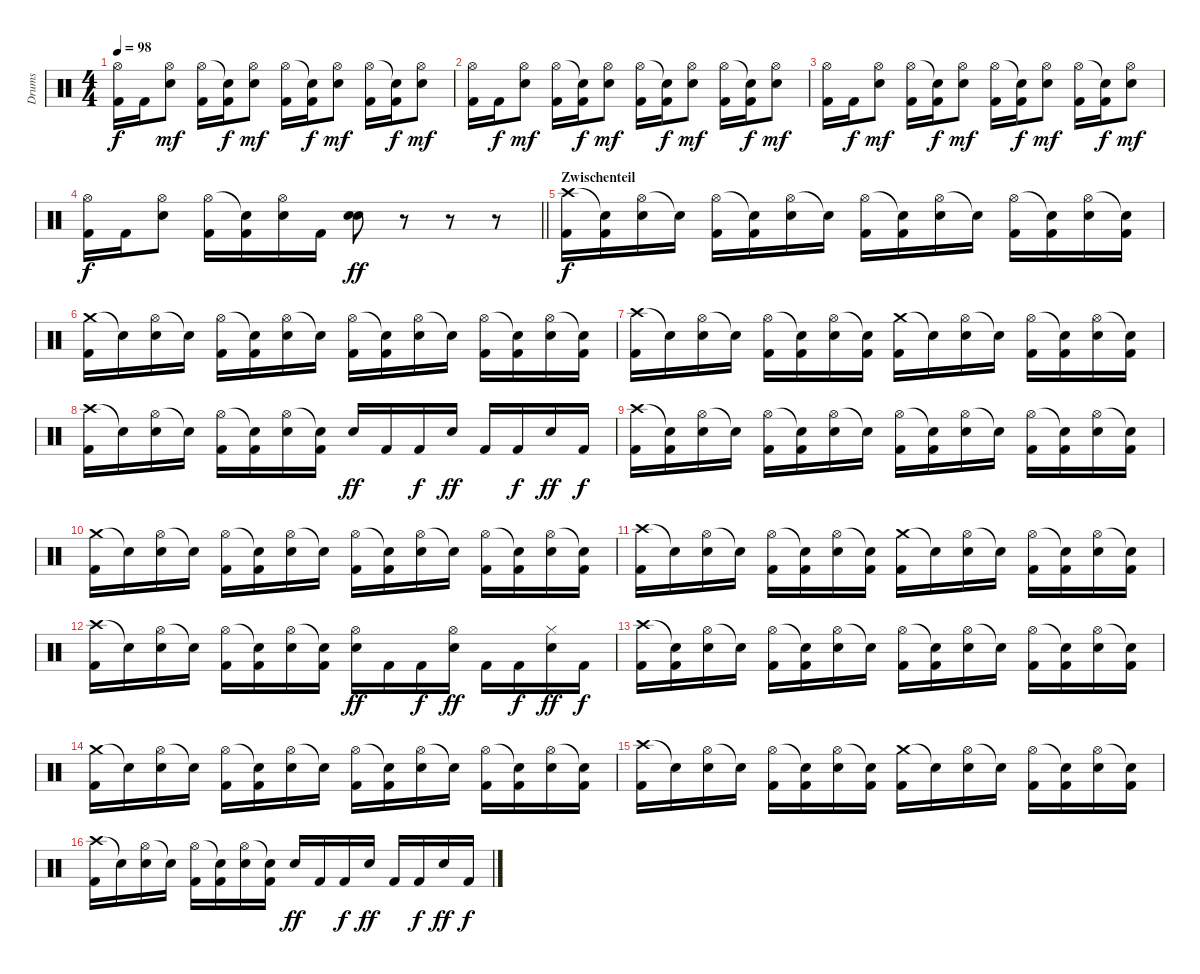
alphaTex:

\track ("Drums" "Drums") {instrument percussion}
\staff {score}
\articulation defaults
\ts (4 4)
\tempo 98
\clef neutral
\ks c
("Hi-Hat (open)" "Kick (hit) 2").16{dy f} "Kick (hit) 2".16 ("Hi-Hat (open)" "Snare (hit) 2").8{dy mf} ("Hi-Hat (open)" "Kick (hit) 2").16 ("Snare (hit)"{t} "Kick (hit) 2").16{dy f} ("Hi-Hat (open)" "Snare (hit) 2").8{dy mf} ("Hi-Hat (open)" "Kick (hit) 2").16 ("Snare (hit)"{t} "Kick (hit) 2").16{dy f} ("Hi-Hat (open)" "Snare (hit) 2").8{dy mf} ("Hi-Hat (open)" "Kick (hit) 2").16 ("Snare (hit)"{t} "Kick (hit) 2").16{dy f} ("Hi-Hat (open)" "Snare (hit) 2").8{dy mf} |
("Hi-Hat (open)" "Kick (hit) 2").16 "Kick (hit) 2".16{dy f} ("Hi-Hat (open)" "Snare (hit) 2").8{dy mf} ("Hi-Hat (open)" "Kick (hit) 2").16 ("Snare (hit)"{t} "Kick (hit) 2").16{dy f} ("Hi-Hat (open)" "Snare (hit) 2").8{dy mf} ("Hi-Hat (open)" "Kick (hit) 2").16 ("Snare (hit)"{t} "Kick (hit) 2").16{dy f} ("Hi-Hat (open)" "Snare (hit) 2").8{dy mf} ("Hi-Hat (open)" "Kick (hit) 2").16 ("Snare (hit)"{t} "Kick (hit) 2").16{dy f} ("Hi-Hat (open)" "Snare (hit) 2").8{dy mf} |
("Hi-Hat (open)" "Kick (hit) 2").16 "Kick (hit) 2".16{dy f} ("Hi-Hat (open)" "Snare (hit) 2").8{dy mf} ("Hi-Hat (open)" "Kick (hit) 2").16 ("Snare (hit)"{t} "Kick (hit) 2").16{dy f} ("Hi-Hat (open)" "Snare (hit) 2").8{dy mf} ("Hi-Hat (open)" "Kick (hit) 2").16 ("Snare (hit)"{t} "Kick (hit) 2").16{dy f} ("Hi-Hat (open)" "Snare (hit) 2").8{dy mf} ("Hi-Hat (open)" "Kick (hit) 2").16 ("Snare (hit)"{t} "Kick (hit) 2").16{dy f} ("Hi-Hat (open)" "Snare (hit) 2").8{dy mf} |
\barLineRight lightlight
("Hi-Hat (open)" "Kick (hit) 2").16{dy f} "Kick (hit) 2".16 ("Hi-Hat (open)" "Snare (hit) 2").8 ("Hi-Hat (open)" "Kick (hit) 2").16 ("Snare (hit)"{t} "Kick (hit) 2").16 ("Hi-Hat (open)" "Snare (hit) 2").16 "Kick (hit) 2".16 ("Electric Snare (hit)" "Snare (hit) 2").8{dy ff} r.8 r.8 r.8 |
\section ("" "Zwischenteil")
("Crash high (hit)" "Kick (hit) 2").16{dy f} ("Snare (hit)"{t} "Kick (hit) 2").16 ("Hi-Hat (open)" "Snare (hit) 2").16 "Snare (hit)"{t}.16 ("Hi-Hat (open)" "Kick (hit) 2").16 ("Snare (hit)"{t} "Kick (hit) 2").16 ("Hi-Hat (open)" "Snare (hit) 2").16 "Snare (hit)"{t}.16 ("Hi-Hat (open)" "Kick (hit) 2").16 ("Snare (hit)"{t} "Kick (hit) 2").16 ("Hi-Hat (open)" "Snare (hit) 2").16 "Snare (hit)"{t}.16 ("Hi-Hat (open)" "Kick (hit) 2").16 ("Snare (hit)"{t} "Kick (hit) 2").16 ("Hi-Hat (open)" "Snare (hit) 2").16 ("Snare (hit)"{t} "Kick (hit) 2").16 |
("Crash medium (hit)" "Kick (hit) 2").16 "Snare (hit)"{t}.16 ("Hi-Hat (open)" "Snare (hit) 2").16 "Snare (hit)"{t}.16 ("Hi-Hat (open)" "Kick (hit) 2").16 ("Snare (hit)"{t} "Kick (hit) 2").16 ("Hi-Hat (open)" "Snare (hit) 2").16 "Snare (hit)"{t}.16 ("Hi-Hat (open)" "Kick (hit) 2").16 ("Snare (hit)"{t} "Kick (hit) 2").16 ("Hi-Hat (open)" "Snare (hit) 2").16 "Snare (hit)"{t}.16 ("Hi-Hat (open)" "Kick (hit) 2").16 ("Snare (hit)"{t} "Kick (hit) 2").16 ("Hi-Hat (open)" "Snare (hit) 2").16 ("Snare (hit)"{t} "Kick (hit) 2").16 |
("Crash high (hit)" "Kick (hit) 2").16 "Snare (hit)"{t}.16 ("Hi-Hat (open)" "Snare (hit) 2").16 "Snare (hit)"{t}.16 ("Hi-Hat (open)" "Kick (hit) 2").16 ("Snare (hit)"{t} "Kick (hit) 2").16 ("Hi-Hat (open)" "Snare (hit) 2").16 ("Snare (hit)"{t} "Kick (hit) 2").16 ("Crash medium (hit)" "Kick (hit) 2").16 "Snare (hit)"{t}.16 ("Hi-Hat (open)" "Snare (hit) 2").16 "Snare (hit)"{t}.16 ("Hi-Hat (open)" "Kick (hit) 2").16 ("Snare (hit)"{t} "Kick (hit) 2").16 ("Hi-Hat (open)" "Snare (hit) 2").16 ("Snare (hit)"{t} "Kick (hit) 2").16 |
("Crash high (hit)" "Kick (hit) 2").16 "Snare (hit)"{t}.16 ("Hi-Hat (open)" "Snare (hit) 2").16 "Snare (hit)"{t}.16 ("Hi-Hat (open)" "Kick (hit) 2").16 ("Snare (hit)"{t} "Kick (hit) 2").16 ("Hi-Hat (open)" "Snare (hit) 2").16 ("Snare (hit)"{t} "Kick (hit) 2").16 "Snare (hit) 2".16{dy ff} "Kick (hit) 2".16 "Kick (hit) 2".16{dy f} "Snare (hit) 2".16{dy ff} "Kick (hit) 2".16 "Kick (hit) 2".16{dy f} "Snare (hit) 2".16{dy ff} "Kick (hit) 2".16{dy f} |
("Crash high (hit)" "Kick (hit) 2").16 ("Snare (hit)"{t} "Kick (hit) 2").16 ("Hi-Hat (open)" "Snare (hit) 2").16 "Snare (hit)"{t}.16 ("Hi-Hat (open)" "Kick (hit) 2").16 ("Snare (hit)"{t} "Kick (hit) 2").16 ("Hi-Hat (open)" "Snare (hit) 2").16 "Snare (hit)"{t}.16 ("Hi-Hat (open)" "Kick (hit) 2").16 ("Snare (hit)"{t} "Kick (hit) 2").16 ("Hi-Hat (open)" "Snare (hit) 2").16 "Snare (hit)"{t}.16 ("Hi-Hat (open)" "Kick (hit) 2").16 ("Snare (hit)"{t} "Kick (hit) 2").16 ("Hi-Hat (open)" "Snare (hit) 2").16 ("Snare (hit)"{t} "Kick (hit) 2").16 |
("Crash medium (hit)" "Kick (hit) 2").16 "Snare (hit)"{t}.16 ("Hi-Hat (open)" "Snare (hit) 2").16 "Snare (hit)"{t}.16 ("Hi-Hat (open)" "Kick (hit) 2").16 ("Snare (hit)"{t} "Kick (hit) 2").16 ("Hi-Hat (open)" "Snare (hit) 2").16 "Snare (hit)"{t}.16 ("Hi-Hat (open)" "Kick (hit) 2").16 ("Snare (hit)"{t} "Kick (hit) 2").16 ("Hi-Hat (open)" "Snare (hit) 2").16 "Snare (hit)"{t}.16 ("Hi-Hat (open)" "Kick (hit) 2").16 ("Snare (hit)"{t} "Kick (hit) 2").16 ("Hi-Hat (open)" "Snare (hit) 2").16 ("Snare (hit)"{t} "Kick (hit) 2").16 |
("Crash high (hit)" "Kick (hit) 2").16 "Snare (hit)"{t}.16 ("Hi-Hat (open)" "Snare (hit) 2").16 "Snare (hit)"{t}.16 ("Hi-Hat (open)" "Kick (hit) 2").16 ("Snare (hit)"{t} "Kick (hit) 2").16 ("Hi-Hat (open)" "Snare (hit) 2").16 ("Snare (hit)"{t} "Kick (hit) 2").16 ("Crash medium (hit)" "Kick (hit) 2").16 "Snare (hit)"{t}.16 ("Hi-Hat (open)" "Snare (hit) 2").16 "Snare (hit)"{t}.16 ("Hi-Hat (open)" "Kick (hit) 2").16 ("Snare (hit)"{t} "Kick (hit) 2").16 ("Hi-Hat (open)" "Snare (hit) 2").16 ("Snare (hit)"{t} "Kick (hit) 2").16 |
("Crash high (hit)" "Kick (hit) 2").16 "Snare (hit)"{t}.16 ("Hi-Hat (open)" "Snare (hit) 2").16 "Snare (hit)"{t}.16 ("Hi-Hat (open)" "Kick (hit) 2").16 ("Snare (hit)"{t} "Kick (hit) 2").16 ("Hi-Hat (open)" "Snare (hit) 2").16 ("Snare (hit)"{t} "Kick (hit) 2").16 ("Hi-Hat (open)" "Snare (hit) 2").16{dy ff} "Kick (hit) 2".16 "Kick (hit) 2".16{dy f} ("Hi-Hat (open)" "Snare (hit) 2").16{dy ff} "Kick (hit) 2".16 "Kick (hit) 2".16{dy f} ("Hi-Hat (closed)" "Snare (hit) 2").16{dy ff} "Kick (hit) 2".16{dy f} |
("Crash high (hit)" "Kick (hit) 2").16 ("Snare (hit)"{t} "Kick (hit) 2").16 ("Hi-Hat (open)" "Snare (hit) 2").16 "Snare (hit)"{t}.16 ("Hi-Hat (open)" "Kick (hit) 2").16 ("Snare (hit)"{t} "Kick (hit) 2").16 ("Hi-Hat (open)" "Snare (hit) 2").16 "Snare (hit)"{t}.16 ("Hi-Hat (open)" "Kick (hit) 2").16 ("Snare (hit)"{t} "Kick (hit) 2").16 ("Hi-Hat (open)" "Snare (hit) 2").16 "Snare (hit)"{t}.16 ("Hi-Hat (open)" "Kick (hit) 2").16 ("Snare (hit)"{t} "Kick (hit) 2").16 ("Hi-Hat (open)" "Snare (hit) 2").16 ("Snare (hit)"{t} "Kick (hit) 2").16 |
("Crash medium (hit)" "Kick (hit) 2").16 "Snare (hit)"{t}.16 ("Hi-Hat (open)" "Snare (hit) 2").16 "Snare (hit)"{t}.16 ("Hi-Hat (open)" "Kick (hit) 2").16 ("Snare (hit)"{t} "Kick (hit) 2").16 ("Hi-Hat (open)" "Snare (hit) 2").16 "Snare (hit)"{t}.16 ("Hi-Hat (open)" "Kick (hit) 2").16 ("Snare (hit)"{t} "Kick (hit) 2").16 ("Hi-Hat (open)" "Snare (hit) 2").16 "Snare (hit)"{t}.16 ("Hi-Hat (open)" "Kick (hit) 2").16 ("Snare (hit)"{t} "Kick (hit) 2").16 ("Hi-Hat (open)" "Snare (hit) 2").16 ("Snare (hit)"{t} "Kick (hit) 2").16 |
("Crash high (hit)" "Kick (hit) 2").16 "Snare (hit)"{t}.16 ("Hi-Hat (open)" "Snare (hit) 2").16 "Snare (hit)"{t}.16 ("Hi-Hat (open)" "Kick (hit) 2").16 ("Snare (hit)"{t} "Kick (hit) 2").16 ("Hi-Hat (open)" "Snare (hit) 2").16 ("Snare (hit)"{t} "Kick (hit) 2").16 ("Crash medium (hit)" "Kick (hit) 2").16 "Snare (hit)"{t}.16 ("Hi-Hat (open)" "Snare (hit) 2").16 "Snare (hit)"{t}.16 ("Hi-Hat (open)" "Kick (hit) 2").16 ("Snare (hit)"{t} "Kick (hit) 2").16 ("Hi-Hat (open)" "Snare (hit) 2").16 ("Snare (hit)"{t} "Kick (hit) 2").16 |
("Crash high (hit)" "Kick (hit) 2").16 "Snare (hit)"{t}.16 ("Hi-Hat (open)" "Snare (hit) 2").16 "Snare (hit)"{t}.16 ("Hi-Hat (open)" "Kick (hit) 2").16 ("Snare (hit)"{t} "Kick (hit) 2").16 ("Hi-Hat (open)" "Snare (hit) 2").16 ("Snare (hit)"{t} "Kick (hit) 2").16 "Snare (hit) 2".16{dy ff} "Kick (hit) 2".16 "Kick (hit) 2".16{dy f} "Snare (hit) 2".16{dy ff} "Kick (hit) 2".16 "Kick (hit) 2".16{dy f} "Snare (hit) 2".16{dy ff} "Kick (hit) 2".16{dy f}
